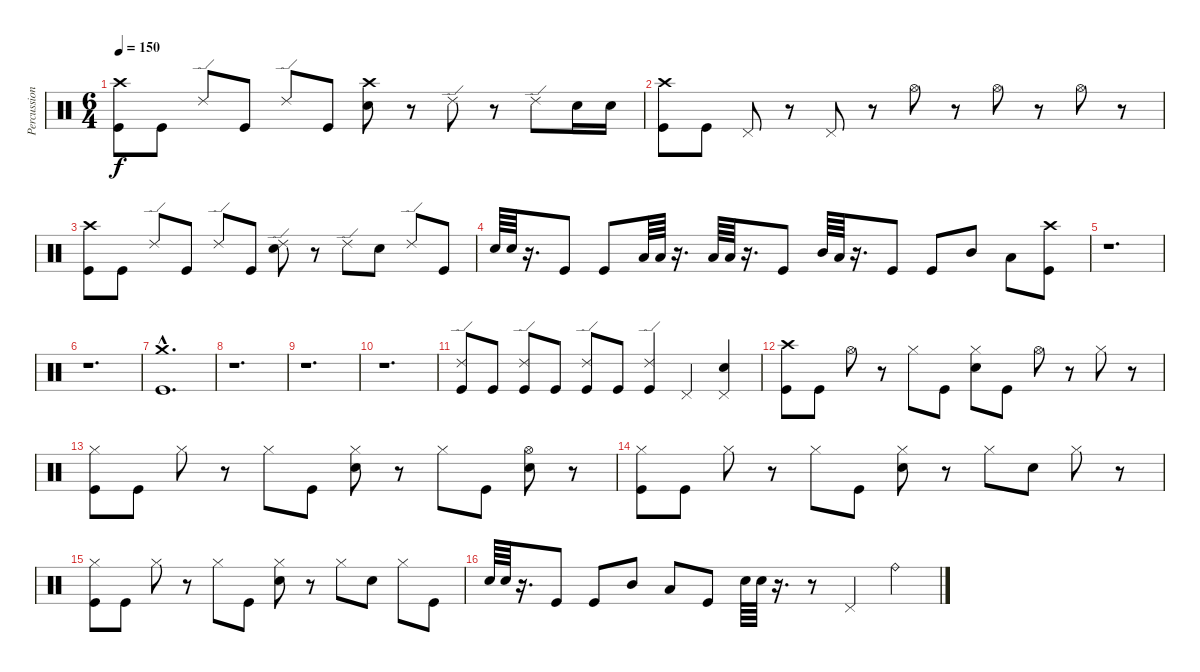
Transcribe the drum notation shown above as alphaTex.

\track ("Percussion" "Percussion") {instrument percussion}
\staff {score}
\articulation defaults
\ts (6 4)
\tempo 150
\clef neutral
\ks c
("Crash high (hit)" "Kick (hit)").8{dy f} "Kick (hit)".8 "Ride (edge) 2".8 "Kick (hit)".8 "Ride (edge) 2".8 "Kick (hit)".8 ("Crash high (hit)" "Snare (hit) 2").8 r.8 "Ride (edge) 2".8 r.8 "Ride (edge) 2".8 "Snare (hit) 2".16 "Snare (hit) 2".16 |
("Crash high (hit)" "Kick (hit)").8 "Kick (hit)".8 "Pedal Hi-Hat (hit)".8 r.8 "Pedal Hi-Hat (hit)".8 r.8 "Hi-Hat (open)".8 r.8 "Hi-Hat (open)".8 r.8 "Hi-Hat (open)".8 r.8 |
("Crash high (hit)" "Kick (hit)").8 "Kick (hit)".8 "Ride (edge) 2".8 "Kick (hit)".8 "Ride (edge) 2".8 "Kick (hit)".8 ("Ride (edge) 2" "Snare (hit) 2").8 r.8 "Ride (edge) 2".8 "Snare (hit) 2".8 "Ride (edge) 2".8 "Kick (hit)".8 |
"Snare (hit) 2".64 "Snare (hit) 2".64 r.16{d} "Kick (hit)".8 "Kick (hit)".8 "Low Tom (hit)".64 "Low Floor Tom (hit)".64 r.16{d} "Low Tom (hit)".64 "Low Floor Tom (hit)".64 r.16{d} "Kick (hit)".8 "Mid Tom (hit)".64 "Low Tom (hit)".64 r.16{d} "Kick (hit)".8 "Kick (hit)".8 "Mid Tom (hit)".8 "Low Tom (hit)".8 ("Crash high (hit)" "Kick (hit)").8 |
r.1{d} |
r.1{d} |
("Crash medium (hit)"{hac} "Kick (hit)"{hac}).1{d} |
r.1{d} |
r.1{d} |
r.1{d} |
("Ride (edge) 2" "Kick (hit)").8 "Kick (hit)".8 ("Ride (edge) 2" "Kick (hit)").8 "Kick (hit)".8 ("Ride (edge) 2" "Kick (hit)").8 "Kick (hit)".8 ("Ride (edge) 2" "Kick (hit)").4 "Pedal Hi-Hat (hit)".4 ("Pedal Hi-Hat (hit)" "Snare (hit) 2").4 |
("Crash high (hit)" "Kick (hit)").8 "Kick (hit)".8 "Hi-Hat (open)".8 r.8 "Hi-Hat (closed)".8 "Kick (hit)".8 ("Hi-Hat (closed)" "Snare (hit) 2").8 "Kick (hit)".8 "Hi-Hat (open)".8 r.8 "Hi-Hat (closed)".8 r.8 |
("Hi-Hat (closed)" "Kick (hit)").8 "Kick (hit)".8 "Hi-Hat (closed)".8 r.8 "Hi-Hat (closed)".8 "Kick (hit)".8 ("Hi-Hat (closed)" "Snare (hit) 2").8 r.8 "Hi-Hat (closed)".8 "Kick (hit)".8 ("Hi-Hat (open)" "Snare (hit) 2").8 r.8 |
("Hi-Hat (closed)" "Kick (hit)").8 "Kick (hit)".8 "Hi-Hat (closed)".8 r.8 "Hi-Hat (closed)".8 "Kick (hit)".8 ("Hi-Hat (closed)" "Snare (hit) 2").8 r.8 "Hi-Hat (closed)".8 "Snare (hit) 2".8 "Hi-Hat (closed)".8 r.8 |
("Hi-Hat (closed)" "Kick (hit)").8 "Kick (hit)".8 "Hi-Hat (closed)".8 r.8 "Hi-Hat (closed)".8 "Kick (hit)".8 ("Hi-Hat (closed)" "Snare (hit) 2").8 r.8 "Hi-Hat (closed)".8 "Snare (hit) 2".8 "Hi-Hat (closed)".8 "Kick (hit)".8 |
"Snare (hit) 2".64 "Snare (hit) 2".64 r.16{d} "Kick (hit)".8 "Kick (hit)".8 "Mid Tom (hit)".8 "Low Tom (hit)".8 "Kick (hit)".8 "Snare (hit) 2".64 "Snare (hit) 2".64 r.16{d} r.8 "Pedal Hi-Hat (hit)".4 "Ride (bell)".4
